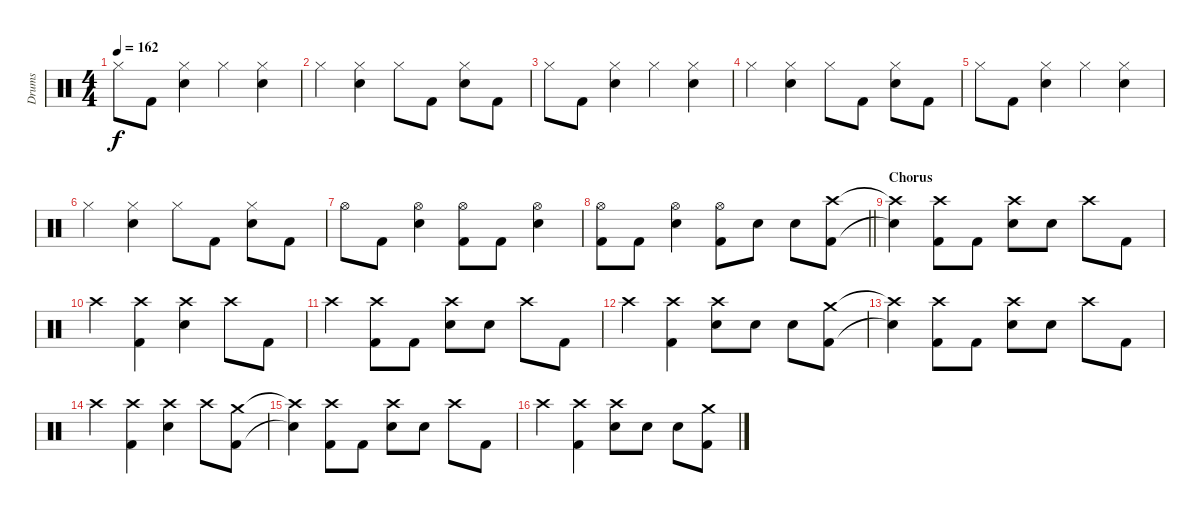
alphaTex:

\track ("Drums" "Drums") {instrument percussion}
\staff {score}
\articulation defaults
\ts (4 4)
\tempo 162
\clef neutral
\ks c "Hi-Hat (closed)".8{dy f} "Kick (hit) 2".8
("Snare (hit) 2" "Hi-Hat (closed)").4 "Hi-Hat (closed)".4 ("Snare (hit) 2" "Hi-Hat (closed)").4 |
"Hi-Hat (closed)".4 ("Snare (hit) 2" "Hi-Hat (closed)").4 "Hi-Hat (closed)".8 "Kick (hit) 2".8 ("Snare (hit) 2" "Hi-Hat (closed)").8 "Kick (hit) 2".8 |
"Hi-Hat (closed)".8 "Kick (hit) 2".8 ("Snare (hit) 2" "Hi-Hat (closed)").4 "Hi-Hat (closed)".4 ("Snare (hit) 2" "Hi-Hat (closed)").4 |
"Hi-Hat (closed)".4 ("Snare (hit) 2" "Hi-Hat (closed)").4 "Hi-Hat (closed)".8 "Kick (hit) 2".8 ("Snare (hit) 2" "Hi-Hat (closed)").8 "Kick (hit) 2".8 |
"Hi-Hat (closed)".8 "Kick (hit) 2".8 ("Snare (hit) 2" "Hi-Hat (closed)").4 "Hi-Hat (closed)".4 ("Snare (hit) 2" "Hi-Hat (closed)").4 |
"Hi-Hat (closed)".4 ("Snare (hit) 2" "Hi-Hat (closed)").4 "Hi-Hat (closed)".8 "Kick (hit) 2".8 ("Snare (hit) 2" "Hi-Hat (closed)").8 "Kick (hit) 2".8 |
"Hi-Hat (open)".8 "Kick (hit) 2".8 ("Snare (hit) 2" "Hi-Hat (open)").4 ("Hi-Hat (open)" "Kick (hit) 2").8 "Kick (hit) 2".8 ("Snare (hit) 2" "Hi-Hat (open)").4 |
\barLineRight lightlight
("Hi-Hat (open)" "Kick (hit) 2").8 "Kick (hit) 2".8 ("Snare (hit) 2" "Hi-Hat (open)").4 ("Hi-Hat (open)" "Kick (hit) 2").8 "Snare (hit) 2".8 "Snare (hit) 2".8 ("Crash high (hit)" "Kick (hit) 2").8 |
\section ("" "Chorus")
("Crash high (hit)"{t} "Snare (hit)"{t}).4 ("Crash high (hit)" "Kick (hit) 2").8 "Kick (hit) 2".8 ("Crash high (hit)" "Snare (hit) 2").8 "Snare (hit) 2".8 "Crash high (hit)".8 "Kick (hit) 2".8 |
"Crash high (hit)".4 ("Crash high (hit)" "Kick (hit) 2").4 ("Crash high (hit)" "Snare (hit) 2").4 "Crash high (hit)".8 "Kick (hit) 2".8 |
"Crash high (hit)".4 ("Crash high (hit)" "Kick (hit) 2").8 "Kick (hit) 2".8 ("Crash high (hit)" "Snare (hit) 2").8 "Snare (hit) 2".8 "Crash high (hit)".8 "Kick (hit) 2".8 |
"Crash high (hit)".4 ("Crash high (hit)" "Kick (hit) 2").4 ("Crash high (hit)" "Snare (hit) 2").8 "Snare (hit) 2".8 "Snare (hit) 2".8 ("Crash medium (hit)" "Kick (hit) 2").8 |
("Crash high (hit)"{t} "Snare (hit)"{t}).4 ("Crash high (hit)" "Kick (hit) 2").8 "Kick (hit) 2".8 ("Crash high (hit)" "Snare (hit) 2").8 "Snare (hit) 2".8 "Crash high (hit)".8 "Kick (hit) 2".8 |
"Crash high (hit)".4 ("Crash high (hit)" "Kick (hit) 2").4 ("Crash high (hit)" "Snare (hit) 2").4 "Crash high (hit)".8 ("Crash medium (hit)" "Kick (hit) 2").8 |
("Crash high (hit)"{t} "Snare (hit)"{t}).4 ("Crash high (hit)" "Kick (hit) 2").8 "Kick (hit) 2".8 ("Crash high (hit)" "Snare (hit) 2").8 "Snare (hit) 2".8 "Crash high (hit)".8 "Kick (hit) 2".8 |
"Crash high (hit)".4 ("Crash high (hit)" "Kick (hit) 2").4 ("Crash high (hit)" "Snare (hit) 2").8 "Snare (hit) 2".8 "Snare (hit) 2".8 ("Crash medium (hit)" "Kick (hit) 2").8
